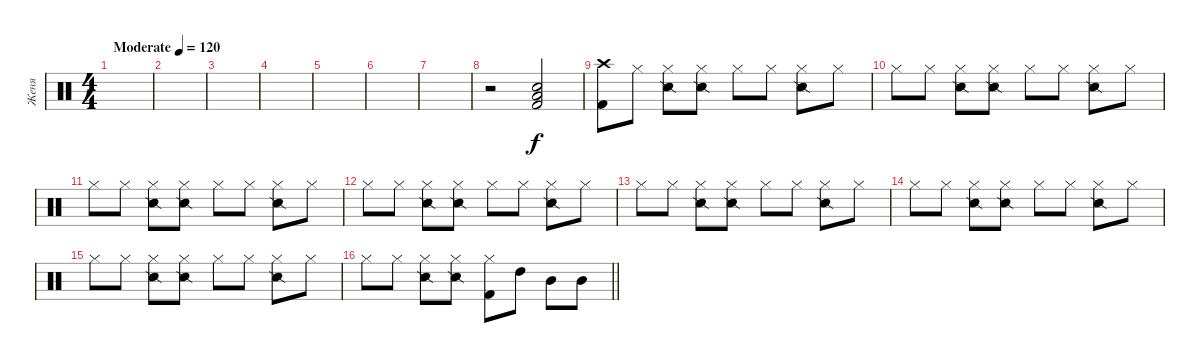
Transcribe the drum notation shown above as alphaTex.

\track ("Женя" "Женя") {instrument percussion}
\staff {score}
\articulation defaults
\ts (4 4)
\tempo (120 "Moderate")
\clef neutral
\ks c
|
|
|
|
|
|
|
r.2 ("Snare (hit) 2" "Low Tom (hit)" "Kick (hit) 2").2 |
("Crash high (hit)" "Kick (hit) 2").8 "Hi-Hat (closed)".8 ("Hi-Hat (closed)" "Snare (side stick) 2").8 ("Hi-Hat (closed)" "Snare (side stick) 2").8 "Hi-Hat (closed)".8 "Hi-Hat (closed)".8 ("Hi-Hat (closed)" "Snare (side stick) 2").8 "Hi-Hat (closed)".8 |
"Hi-Hat (closed)".8 "Hi-Hat (closed)".8 ("Hi-Hat (closed)" "Snare (side stick) 2").8 ("Hi-Hat (closed)" "Snare (side stick) 2").8 "Hi-Hat (closed)".8 "Hi-Hat (closed)".8 ("Hi-Hat (closed)" "Snare (side stick) 2").8 "Hi-Hat (closed)".8 |
"Hi-Hat (closed)".8 "Hi-Hat (closed)".8 ("Hi-Hat (closed)" "Snare (side stick) 2").8 ("Hi-Hat (closed)" "Snare (side stick) 2").8 "Hi-Hat (closed)".8 "Hi-Hat (closed)".8 ("Hi-Hat (closed)" "Snare (side stick) 2").8 "Hi-Hat (closed)".8 |
"Hi-Hat (closed)".8 "Hi-Hat (closed)".8 ("Hi-Hat (closed)" "Snare (side stick) 2").8 ("Hi-Hat (closed)" "Snare (side stick) 2").8 "Hi-Hat (closed)".8 "Hi-Hat (closed)".8 ("Hi-Hat (closed)" "Snare (side stick) 2").8 "Hi-Hat (closed)".8 |
"Hi-Hat (closed)".8 "Hi-Hat (closed)".8 ("Hi-Hat (closed)" "Snare (side stick) 2").8 ("Hi-Hat (closed)" "Snare (side stick) 2").8 "Hi-Hat (closed)".8 "Hi-Hat (closed)".8 ("Hi-Hat (closed)" "Snare (side stick) 2").8 "Hi-Hat (closed)".8 |
"Hi-Hat (closed)".8 "Hi-Hat (closed)".8 ("Hi-Hat (closed)" "Snare (side stick) 2").8 ("Hi-Hat (closed)" "Snare (side stick) 2").8 "Hi-Hat (closed)".8 "Hi-Hat (closed)".8 ("Hi-Hat (closed)" "Snare (side stick) 2").8 "Hi-Hat (closed)".8 |
"Hi-Hat (closed)".8 "Hi-Hat (closed)".8 ("Hi-Hat (closed)" "Snare (side stick) 2").8 ("Hi-Hat (closed)" "Snare (side stick) 2").8 "Hi-Hat (closed)".8 "Hi-Hat (closed)".8 ("Hi-Hat (closed)" "Snare (side stick) 2").8 "Hi-Hat (closed)".8 |
\barLineRight lightlight "Hi-Hat (closed)".8 "Hi-Hat (closed)".8
("Hi-Hat (closed)" "Snare (side stick) 2").8 ("Hi-Hat (closed)" "Snare (side stick) 2").8 ("Hi-Hat (closed)" "Kick (hit) 2").8 "High Tom (hit)".8 "Mid Tom (hit)".8 "Mid Tom (hit)".8
